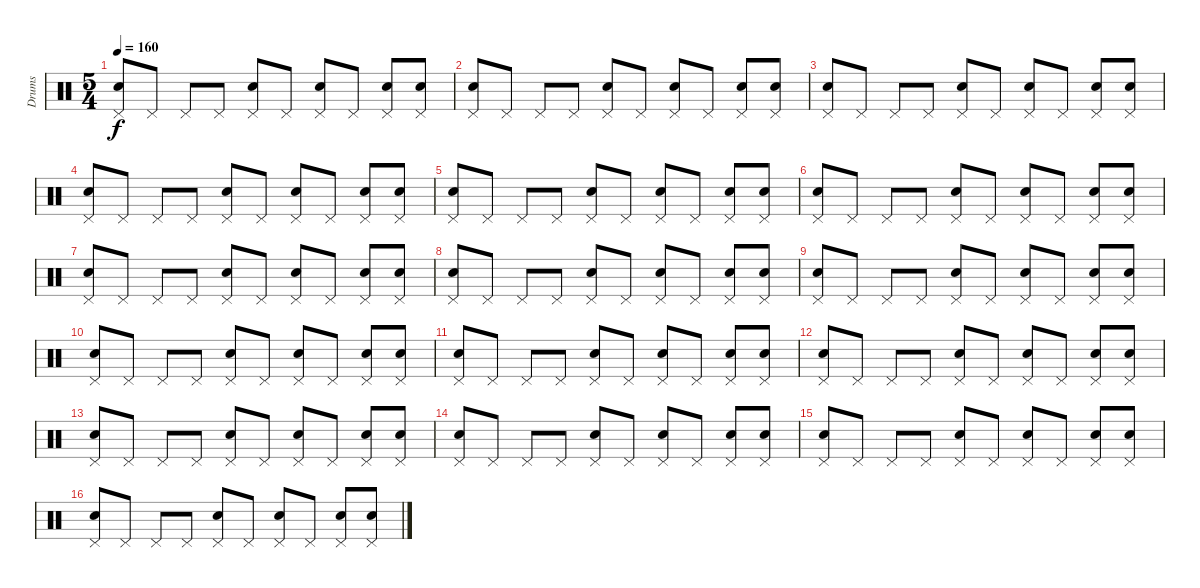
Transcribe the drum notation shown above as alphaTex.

\track ("Drums" "Drums") {instrument percussion}
\staff {score}
\articulation defaults
\ts (5 4)
\tempo 160
\clef neutral
\ks c
("Pedal Hi-Hat (hit)" "Electric Snare (hit)").8{dy f} "Pedal Hi-Hat (hit)".8 "Pedal Hi-Hat (hit)".8 "Pedal Hi-Hat (hit)".8 ("Pedal Hi-Hat (hit)" "Electric Snare (hit)").8 "Pedal Hi-Hat (hit)".8 ("Pedal Hi-Hat (hit)" "Electric Snare (hit)").8 "Pedal Hi-Hat (hit)".8 ("Pedal Hi-Hat (hit)" "Electric Snare (hit)").8 ("Pedal Hi-Hat (hit)" "Electric Snare (hit)").8 |
("Pedal Hi-Hat (hit)" "Electric Snare (hit)").8 "Pedal Hi-Hat (hit)".8 "Pedal Hi-Hat (hit)".8 "Pedal Hi-Hat (hit)".8 ("Pedal Hi-Hat (hit)" "Electric Snare (hit)").8 "Pedal Hi-Hat (hit)".8 ("Pedal Hi-Hat (hit)" "Electric Snare (hit)").8 "Pedal Hi-Hat (hit)".8 ("Pedal Hi-Hat (hit)" "Electric Snare (hit)").8 ("Pedal Hi-Hat (hit)" "Electric Snare (hit)").8 |
("Pedal Hi-Hat (hit)" "Electric Snare (hit)").8 "Pedal Hi-Hat (hit)".8 "Pedal Hi-Hat (hit)".8 "Pedal Hi-Hat (hit)".8 ("Pedal Hi-Hat (hit)" "Electric Snare (hit)").8 "Pedal Hi-Hat (hit)".8 ("Pedal Hi-Hat (hit)" "Electric Snare (hit)").8 "Pedal Hi-Hat (hit)".8 ("Pedal Hi-Hat (hit)" "Electric Snare (hit)").8 ("Pedal Hi-Hat (hit)" "Electric Snare (hit)").8 |
("Pedal Hi-Hat (hit)" "Electric Snare (hit)").8 "Pedal Hi-Hat (hit)".8 "Pedal Hi-Hat (hit)".8 "Pedal Hi-Hat (hit)".8 ("Pedal Hi-Hat (hit)" "Electric Snare (hit)").8 "Pedal Hi-Hat (hit)".8 ("Pedal Hi-Hat (hit)" "Electric Snare (hit)").8 "Pedal Hi-Hat (hit)".8 ("Pedal Hi-Hat (hit)" "Electric Snare (hit)").8 ("Pedal Hi-Hat (hit)" "Electric Snare (hit)").8 |
("Pedal Hi-Hat (hit)" "Electric Snare (hit)").8 "Pedal Hi-Hat (hit)".8 "Pedal Hi-Hat (hit)".8 "Pedal Hi-Hat (hit)".8 ("Pedal Hi-Hat (hit)" "Electric Snare (hit)").8 "Pedal Hi-Hat (hit)".8 ("Pedal Hi-Hat (hit)" "Electric Snare (hit)").8 "Pedal Hi-Hat (hit)".8 ("Pedal Hi-Hat (hit)" "Electric Snare (hit)").8 ("Pedal Hi-Hat (hit)" "Electric Snare (hit)").8 |
("Pedal Hi-Hat (hit)" "Electric Snare (hit)").8 "Pedal Hi-Hat (hit)".8 "Pedal Hi-Hat (hit)".8 "Pedal Hi-Hat (hit)".8 ("Pedal Hi-Hat (hit)" "Electric Snare (hit)").8 "Pedal Hi-Hat (hit)".8 ("Pedal Hi-Hat (hit)" "Electric Snare (hit)").8 "Pedal Hi-Hat (hit)".8 ("Pedal Hi-Hat (hit)" "Electric Snare (hit)").8 ("Pedal Hi-Hat (hit)" "Electric Snare (hit)").8 |
("Pedal Hi-Hat (hit)" "Electric Snare (hit)").8 "Pedal Hi-Hat (hit)".8 "Pedal Hi-Hat (hit)".8 "Pedal Hi-Hat (hit)".8 ("Pedal Hi-Hat (hit)" "Electric Snare (hit)").8 "Pedal Hi-Hat (hit)".8 ("Pedal Hi-Hat (hit)" "Electric Snare (hit)").8 "Pedal Hi-Hat (hit)".8 ("Pedal Hi-Hat (hit)" "Electric Snare (hit)").8 ("Pedal Hi-Hat (hit)" "Electric Snare (hit)").8 |
("Pedal Hi-Hat (hit)" "Electric Snare (hit)").8 "Pedal Hi-Hat (hit)".8 "Pedal Hi-Hat (hit)".8 "Pedal Hi-Hat (hit)".8 ("Pedal Hi-Hat (hit)" "Electric Snare (hit)").8 "Pedal Hi-Hat (hit)".8 ("Pedal Hi-Hat (hit)" "Electric Snare (hit)").8 "Pedal Hi-Hat (hit)".8 ("Pedal Hi-Hat (hit)" "Electric Snare (hit)").8 ("Pedal Hi-Hat (hit)" "Electric Snare (hit)").8 |
("Pedal Hi-Hat (hit)" "Electric Snare (hit)").8 "Pedal Hi-Hat (hit)".8 "Pedal Hi-Hat (hit)".8 "Pedal Hi-Hat (hit)".8 ("Pedal Hi-Hat (hit)" "Electric Snare (hit)").8 "Pedal Hi-Hat (hit)".8 ("Pedal Hi-Hat (hit)" "Electric Snare (hit)").8 "Pedal Hi-Hat (hit)".8 ("Pedal Hi-Hat (hit)" "Electric Snare (hit)").8 ("Pedal Hi-Hat (hit)" "Electric Snare (hit)").8 |
("Pedal Hi-Hat (hit)" "Electric Snare (hit)").8 "Pedal Hi-Hat (hit)".8 "Pedal Hi-Hat (hit)".8 "Pedal Hi-Hat (hit)".8 ("Pedal Hi-Hat (hit)" "Electric Snare (hit)").8 "Pedal Hi-Hat (hit)".8 ("Pedal Hi-Hat (hit)" "Electric Snare (hit)").8 "Pedal Hi-Hat (hit)".8 ("Pedal Hi-Hat (hit)" "Electric Snare (hit)").8 ("Pedal Hi-Hat (hit)" "Electric Snare (hit)").8 |
("Pedal Hi-Hat (hit)" "Electric Snare (hit)").8 "Pedal Hi-Hat (hit)".8 "Pedal Hi-Hat (hit)".8 "Pedal Hi-Hat (hit)".8 ("Pedal Hi-Hat (hit)" "Electric Snare (hit)").8 "Pedal Hi-Hat (hit)".8 ("Pedal Hi-Hat (hit)" "Electric Snare (hit)").8 "Pedal Hi-Hat (hit)".8 ("Pedal Hi-Hat (hit)" "Electric Snare (hit)").8 ("Pedal Hi-Hat (hit)" "Electric Snare (hit)").8 |
("Pedal Hi-Hat (hit)" "Electric Snare (hit)").8 "Pedal Hi-Hat (hit)".8 "Pedal Hi-Hat (hit)".8 "Pedal Hi-Hat (hit)".8 ("Pedal Hi-Hat (hit)" "Electric Snare (hit)").8 "Pedal Hi-Hat (hit)".8 ("Pedal Hi-Hat (hit)" "Electric Snare (hit)").8 "Pedal Hi-Hat (hit)".8 ("Pedal Hi-Hat (hit)" "Electric Snare (hit)").8 ("Pedal Hi-Hat (hit)" "Electric Snare (hit)").8 |
("Pedal Hi-Hat (hit)" "Electric Snare (hit)").8 "Pedal Hi-Hat (hit)".8 "Pedal Hi-Hat (hit)".8 "Pedal Hi-Hat (hit)".8 ("Pedal Hi-Hat (hit)" "Electric Snare (hit)").8 "Pedal Hi-Hat (hit)".8 ("Pedal Hi-Hat (hit)" "Electric Snare (hit)").8 "Pedal Hi-Hat (hit)".8 ("Pedal Hi-Hat (hit)" "Electric Snare (hit)").8 ("Pedal Hi-Hat (hit)" "Electric Snare (hit)").8 |
("Pedal Hi-Hat (hit)" "Electric Snare (hit)").8 "Pedal Hi-Hat (hit)".8 "Pedal Hi-Hat (hit)".8 "Pedal Hi-Hat (hit)".8 ("Pedal Hi-Hat (hit)" "Electric Snare (hit)").8 "Pedal Hi-Hat (hit)".8 ("Pedal Hi-Hat (hit)" "Electric Snare (hit)").8 "Pedal Hi-Hat (hit)".8 ("Pedal Hi-Hat (hit)" "Electric Snare (hit)").8 ("Pedal Hi-Hat (hit)" "Electric Snare (hit)").8 |
("Pedal Hi-Hat (hit)" "Electric Snare (hit)").8 "Pedal Hi-Hat (hit)".8 "Pedal Hi-Hat (hit)".8 "Pedal Hi-Hat (hit)".8 ("Pedal Hi-Hat (hit)" "Electric Snare (hit)").8 "Pedal Hi-Hat (hit)".8 ("Pedal Hi-Hat (hit)" "Electric Snare (hit)").8 "Pedal Hi-Hat (hit)".8 ("Pedal Hi-Hat (hit)" "Electric Snare (hit)").8 ("Pedal Hi-Hat (hit)" "Electric Snare (hit)").8 |
("Pedal Hi-Hat (hit)" "Electric Snare (hit)").8 "Pedal Hi-Hat (hit)".8 "Pedal Hi-Hat (hit)".8 "Pedal Hi-Hat (hit)".8 ("Pedal Hi-Hat (hit)" "Electric Snare (hit)").8 "Pedal Hi-Hat (hit)".8 ("Pedal Hi-Hat (hit)" "Electric Snare (hit)").8 "Pedal Hi-Hat (hit)".8 ("Pedal Hi-Hat (hit)" "Electric Snare (hit)").8 ("Pedal Hi-Hat (hit)" "Electric Snare (hit)").8
